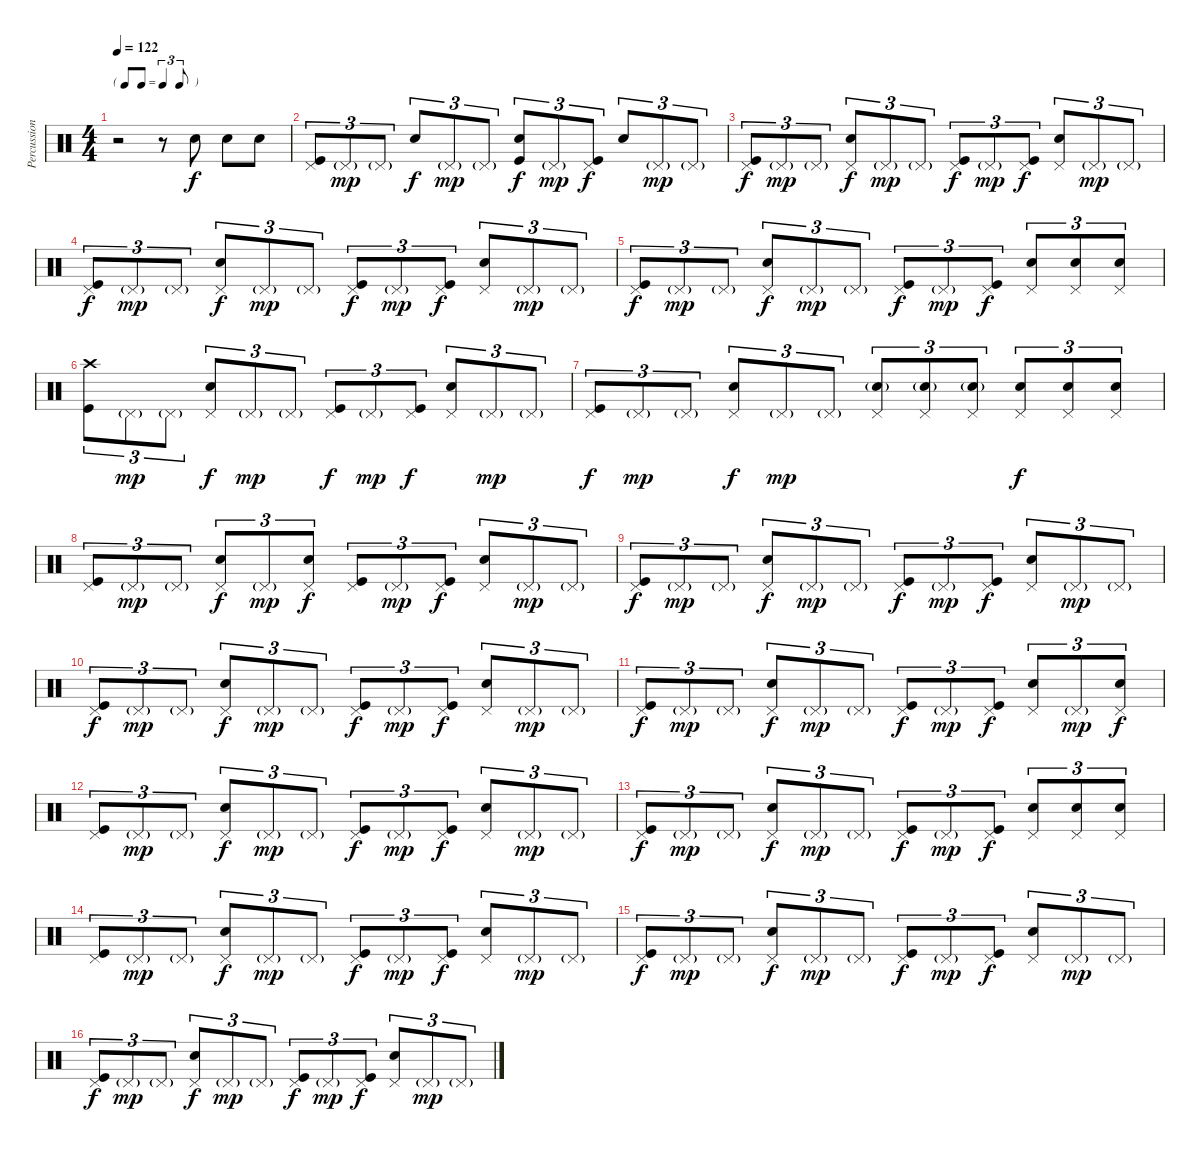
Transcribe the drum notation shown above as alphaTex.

\track ("Percussion" "Percussion") {instrument percussion}
\staff {score}
\articulation defaults
\ts (4 4)
\tf triplet8th
\tempo 122
\clef neutral
\ks c
r.2{dy f} r.8 "Snare (hit) 2".8 "Snare (hit) 2".8 "Snare (hit) 2".8 |
("Pedal Hi-Hat (hit)" "Kick (hit)").8{tu (3 2)} "Pedal Hi-Hat (hit)"{g}.8{tu (3 2) dy mp} "Pedal Hi-Hat (hit)"{g}.8{tu (3 2)} "Snare (hit) 2".8{tu (3 2) dy f} "Pedal Hi-Hat (hit)"{g}.8{tu (3 2) dy mp} "Pedal Hi-Hat (hit)"{g}.8{tu (3 2)} ("Snare (hit) 2" "Kick (hit)").8{tu (3 2) dy f} "Pedal Hi-Hat (hit)"{g}.8{tu (3 2) dy mp} ("Pedal Hi-Hat (hit)" "Kick (hit)").8{tu (3 2) dy f} "Snare (hit) 2".8{tu (3 2)} "Pedal Hi-Hat (hit)"{g}.8{tu (3 2) dy mp} "Pedal Hi-Hat (hit)"{g}.8{tu (3 2)} |
("Pedal Hi-Hat (hit)" "Kick (hit)").8{tu (3 2) dy f} "Pedal Hi-Hat (hit)"{g}.8{tu (3 2) dy mp} "Pedal Hi-Hat (hit)"{g}.8{tu (3 2)} ("Pedal Hi-Hat (hit)" "Snare (hit) 2").8{tu (3 2) dy f} "Pedal Hi-Hat (hit)"{g}.8{tu (3 2) dy mp} "Pedal Hi-Hat (hit)"{g}.8{tu (3 2)} ("Pedal Hi-Hat (hit)" "Kick (hit)").8{tu (3 2) dy f} "Pedal Hi-Hat (hit)"{g}.8{tu (3 2) dy mp} ("Pedal Hi-Hat (hit)" "Kick (hit)").8{tu (3 2) dy f} ("Pedal Hi-Hat (hit)" "Snare (hit) 2").8{tu (3 2)} "Pedal Hi-Hat (hit)"{g}.8{tu (3 2) dy mp} "Pedal Hi-Hat (hit)"{g}.8{tu (3 2)} |
("Pedal Hi-Hat (hit)" "Kick (hit)").8{tu (3 2) dy f} "Pedal Hi-Hat (hit)"{g}.8{tu (3 2) dy mp} "Pedal Hi-Hat (hit)"{g}.8{tu (3 2)} ("Pedal Hi-Hat (hit)" "Snare (hit) 2").8{tu (3 2) dy f} "Pedal Hi-Hat (hit)"{g}.8{tu (3 2) dy mp} "Pedal Hi-Hat (hit)"{g}.8{tu (3 2)} ("Pedal Hi-Hat (hit)" "Kick (hit)").8{tu (3 2) dy f} "Pedal Hi-Hat (hit)"{g}.8{tu (3 2) dy mp} ("Pedal Hi-Hat (hit)" "Kick (hit)").8{tu (3 2) dy f} ("Pedal Hi-Hat (hit)" "Snare (hit) 2").8{tu (3 2)} "Pedal Hi-Hat (hit)"{g}.8{tu (3 2) dy mp} "Pedal Hi-Hat (hit)"{g}.8{tu (3 2)} |
("Pedal Hi-Hat (hit)" "Kick (hit)").8{tu (3 2) dy f} "Pedal Hi-Hat (hit)"{g}.8{tu (3 2) dy mp} "Pedal Hi-Hat (hit)"{g}.8{tu (3 2)} ("Pedal Hi-Hat (hit)" "Snare (hit) 2").8{tu (3 2) dy f} "Pedal Hi-Hat (hit)"{g}.8{tu (3 2) dy mp} "Pedal Hi-Hat (hit)"{g}.8{tu (3 2)} ("Pedal Hi-Hat (hit)" "Kick (hit)").8{tu (3 2) dy f} "Pedal Hi-Hat (hit)"{g}.8{tu (3 2) dy mp} ("Pedal Hi-Hat (hit)" "Kick (hit)").8{tu (3 2) dy f} ("Pedal Hi-Hat (hit)" "Snare (hit) 2").8{tu (3 2)} ("Pedal Hi-Hat (hit)" "Snare (hit) 2").8{tu (3 2)} ("Pedal Hi-Hat (hit)" "Snare (hit) 2").8{tu (3 2)} |
("Crash high (hit)" "Kick (hit)").8{tu (3 2)} "Pedal Hi-Hat (hit)"{g}.8{tu (3 2) dy mp} "Pedal Hi-Hat (hit)"{g}.8{tu (3 2)} ("Pedal Hi-Hat (hit)" "Snare (hit) 2").8{tu (3 2) dy f} "Pedal Hi-Hat (hit)"{g}.8{tu (3 2) dy mp} "Pedal Hi-Hat (hit)"{g}.8{tu (3 2)} ("Pedal Hi-Hat (hit)" "Kick (hit)").8{tu (3 2) dy f} "Pedal Hi-Hat (hit)"{g}.8{tu (3 2) dy mp} ("Pedal Hi-Hat (hit)" "Kick (hit)").8{tu (3 2) dy f} ("Pedal Hi-Hat (hit)" "Snare (hit) 2").8{tu (3 2)} "Pedal Hi-Hat (hit)"{g}.8{tu (3 2) dy mp} "Pedal Hi-Hat (hit)"{g}.8{tu (3 2)} |
("Pedal Hi-Hat (hit)" "Kick (hit)").8{tu (3 2) dy f} "Pedal Hi-Hat (hit)"{g}.8{tu (3 2) dy mp} "Pedal Hi-Hat (hit)"{g}.8{tu (3 2)} ("Pedal Hi-Hat (hit)" "Snare (hit) 2").8{tu (3 2) dy f} "Pedal Hi-Hat (hit)"{g}.8{tu (3 2) dy mp} "Pedal Hi-Hat (hit)"{g}.8{tu (3 2)} ("Pedal Hi-Hat (hit)" "Snare (hit) 2"{g}).8{tu (3 2)} ("Pedal Hi-Hat (hit)" "Snare (hit) 2"{g}).8{tu (3 2)} ("Pedal Hi-Hat (hit)" "Snare (hit) 2"{g}).8{tu (3 2)} ("Pedal Hi-Hat (hit)" "Snare (hit) 2").8{tu (3 2) dy f} ("Pedal Hi-Hat (hit)" "Snare (hit) 2").8{tu (3 2)} ("Pedal Hi-Hat (hit)" "Snare (hit) 2").8{tu (3 2)} |
("Pedal Hi-Hat (hit)" "Kick (hit)").8{tu (3 2)} "Pedal Hi-Hat (hit)"{g}.8{tu (3 2) dy mp} "Pedal Hi-Hat (hit)"{g}.8{tu (3 2)} ("Pedal Hi-Hat (hit)" "Snare (hit) 2").8{tu (3 2) dy f} "Pedal Hi-Hat (hit)"{g}.8{tu (3 2) dy mp} ("Pedal Hi-Hat (hit)" "Snare (hit) 2").8{tu (3 2) dy f} ("Pedal Hi-Hat (hit)" "Kick (hit)").8{tu (3 2)} "Pedal Hi-Hat (hit)"{g}.8{tu (3 2) dy mp} ("Pedal Hi-Hat (hit)" "Kick (hit)").8{tu (3 2) dy f} ("Pedal Hi-Hat (hit)" "Snare (hit) 2").8{tu (3 2)} "Pedal Hi-Hat (hit)"{g}.8{tu (3 2) dy mp} "Pedal Hi-Hat (hit)"{g}.8{tu (3 2)} |
("Pedal Hi-Hat (hit)" "Kick (hit)").8{tu (3 2) dy f} "Pedal Hi-Hat (hit)"{g}.8{tu (3 2) dy mp} "Pedal Hi-Hat (hit)"{g}.8{tu (3 2)} ("Pedal Hi-Hat (hit)" "Snare (hit) 2").8{tu (3 2) dy f} "Pedal Hi-Hat (hit)"{g}.8{tu (3 2) dy mp} "Pedal Hi-Hat (hit)"{g}.8{tu (3 2)} ("Pedal Hi-Hat (hit)" "Kick (hit)").8{tu (3 2) dy f} "Pedal Hi-Hat (hit)"{g}.8{tu (3 2) dy mp} ("Pedal Hi-Hat (hit)" "Kick (hit)").8{tu (3 2) dy f} ("Pedal Hi-Hat (hit)" "Snare (hit) 2").8{tu (3 2)} "Pedal Hi-Hat (hit)"{g}.8{tu (3 2) dy mp} "Pedal Hi-Hat (hit)"{g}.8{tu (3 2)} |
("Pedal Hi-Hat (hit)" "Kick (hit)").8{tu (3 2) dy f} "Pedal Hi-Hat (hit)"{g}.8{tu (3 2) dy mp} "Pedal Hi-Hat (hit)"{g}.8{tu (3 2)} ("Pedal Hi-Hat (hit)" "Snare (hit) 2").8{tu (3 2) dy f} "Pedal Hi-Hat (hit)"{g}.8{tu (3 2) dy mp} "Pedal Hi-Hat (hit)"{g}.8{tu (3 2)} ("Pedal Hi-Hat (hit)" "Kick (hit)").8{tu (3 2) dy f} "Pedal Hi-Hat (hit)"{g}.8{tu (3 2) dy mp} ("Pedal Hi-Hat (hit)" "Kick (hit)").8{tu (3 2) dy f} ("Pedal Hi-Hat (hit)" "Snare (hit) 2").8{tu (3 2)} "Pedal Hi-Hat (hit)"{g}.8{tu (3 2) dy mp} "Pedal Hi-Hat (hit)"{g}.8{tu (3 2)} |
("Pedal Hi-Hat (hit)" "Kick (hit)").8{tu (3 2) dy f} "Pedal Hi-Hat (hit)"{g}.8{tu (3 2) dy mp} "Pedal Hi-Hat (hit)"{g}.8{tu (3 2)} ("Pedal Hi-Hat (hit)" "Snare (hit) 2").8{tu (3 2) dy f} "Pedal Hi-Hat (hit)"{g}.8{tu (3 2) dy mp} "Pedal Hi-Hat (hit)"{g}.8{tu (3 2)} ("Pedal Hi-Hat (hit)" "Kick (hit)").8{tu (3 2) dy f} "Pedal Hi-Hat (hit)"{g}.8{tu (3 2) dy mp} ("Pedal Hi-Hat (hit)" "Kick (hit)").8{tu (3 2) dy f} ("Pedal Hi-Hat (hit)" "Snare (hit) 2").8{tu (3 2)} "Pedal Hi-Hat (hit)"{g}.8{tu (3 2) dy mp} ("Pedal Hi-Hat (hit)" "Snare (hit) 2").8{tu (3 2) dy f} |
("Pedal Hi-Hat (hit)" "Kick (hit)").8{tu (3 2)} "Pedal Hi-Hat (hit)"{g}.8{tu (3 2) dy mp} "Pedal Hi-Hat (hit)"{g}.8{tu (3 2)} ("Pedal Hi-Hat (hit)" "Snare (hit) 2").8{tu (3 2) dy f} "Pedal Hi-Hat (hit)"{g}.8{tu (3 2) dy mp} "Pedal Hi-Hat (hit)"{g}.8{tu (3 2)} ("Pedal Hi-Hat (hit)" "Kick (hit)").8{tu (3 2) dy f} "Pedal Hi-Hat (hit)"{g}.8{tu (3 2) dy mp} ("Pedal Hi-Hat (hit)" "Kick (hit)").8{tu (3 2) dy f} ("Pedal Hi-Hat (hit)" "Snare (hit) 2").8{tu (3 2)} "Pedal Hi-Hat (hit)"{g}.8{tu (3 2) dy mp} "Pedal Hi-Hat (hit)"{g}.8{tu (3 2)} |
("Pedal Hi-Hat (hit)" "Kick (hit)").8{tu (3 2) dy f} "Pedal Hi-Hat (hit)"{g}.8{tu (3 2) dy mp} "Pedal Hi-Hat (hit)"{g}.8{tu (3 2)} ("Pedal Hi-Hat (hit)" "Snare (hit) 2").8{tu (3 2) dy f} "Pedal Hi-Hat (hit)"{g}.8{tu (3 2) dy mp} "Pedal Hi-Hat (hit)"{g}.8{tu (3 2)} ("Pedal Hi-Hat (hit)" "Kick (hit)").8{tu (3 2) dy f} "Pedal Hi-Hat (hit)"{g}.8{tu (3 2) dy mp} ("Pedal Hi-Hat (hit)" "Kick (hit)").8{tu (3 2) dy f} ("Pedal Hi-Hat (hit)" "Snare (hit) 2").8{tu (3 2)} ("Pedal Hi-Hat (hit)" "Snare (hit) 2").8{tu (3 2)} ("Pedal Hi-Hat (hit)" "Snare (hit) 2").8{tu (3 2)} |
("Pedal Hi-Hat (hit)" "Kick (hit)").8{tu (3 2)} "Pedal Hi-Hat (hit)"{g}.8{tu (3 2) dy mp} "Pedal Hi-Hat (hit)"{g}.8{tu (3 2)} ("Pedal Hi-Hat (hit)" "Snare (hit) 2").8{tu (3 2) dy f} "Pedal Hi-Hat (hit)"{g}.8{tu (3 2) dy mp} "Pedal Hi-Hat (hit)"{g}.8{tu (3 2)} ("Pedal Hi-Hat (hit)" "Kick (hit)").8{tu (3 2) dy f} "Pedal Hi-Hat (hit)"{g}.8{tu (3 2) dy mp} ("Pedal Hi-Hat (hit)" "Kick (hit)").8{tu (3 2) dy f} ("Pedal Hi-Hat (hit)" "Snare (hit) 2").8{tu (3 2)} "Pedal Hi-Hat (hit)"{g}.8{tu (3 2) dy mp} "Pedal Hi-Hat (hit)"{g}.8{tu (3 2)} |
("Pedal Hi-Hat (hit)" "Kick (hit)").8{tu (3 2) dy f} "Pedal Hi-Hat (hit)"{g}.8{tu (3 2) dy mp} "Pedal Hi-Hat (hit)"{g}.8{tu (3 2)} ("Pedal Hi-Hat (hit)" "Snare (hit) 2").8{tu (3 2) dy f} "Pedal Hi-Hat (hit)"{g}.8{tu (3 2) dy mp} "Pedal Hi-Hat (hit)"{g}.8{tu (3 2)} ("Pedal Hi-Hat (hit)" "Kick (hit)").8{tu (3 2) dy f} "Pedal Hi-Hat (hit)"{g}.8{tu (3 2) dy mp} ("Pedal Hi-Hat (hit)" "Kick (hit)").8{tu (3 2) dy f} ("Pedal Hi-Hat (hit)" "Snare (hit) 2").8{tu (3 2)} "Pedal Hi-Hat (hit)"{g}.8{tu (3 2) dy mp} "Pedal Hi-Hat (hit)"{g}.8{tu (3 2)} |
("Pedal Hi-Hat (hit)" "Kick (hit)").8{tu (3 2) dy f} "Pedal Hi-Hat (hit)"{g}.8{tu (3 2) dy mp} "Pedal Hi-Hat (hit)"{g}.8{tu (3 2)} ("Pedal Hi-Hat (hit)" "Snare (hit) 2").8{tu (3 2) dy f} "Pedal Hi-Hat (hit)"{g}.8{tu (3 2) dy mp} "Pedal Hi-Hat (hit)"{g}.8{tu (3 2)} ("Pedal Hi-Hat (hit)" "Kick (hit)").8{tu (3 2) dy f} "Pedal Hi-Hat (hit)"{g}.8{tu (3 2) dy mp} ("Pedal Hi-Hat (hit)" "Kick (hit)").8{tu (3 2) dy f} ("Pedal Hi-Hat (hit)" "Snare (hit) 2").8{tu (3 2)} "Pedal Hi-Hat (hit)"{g}.8{tu (3 2) dy mp} "Pedal Hi-Hat (hit)"{g}.8{tu (3 2)}
